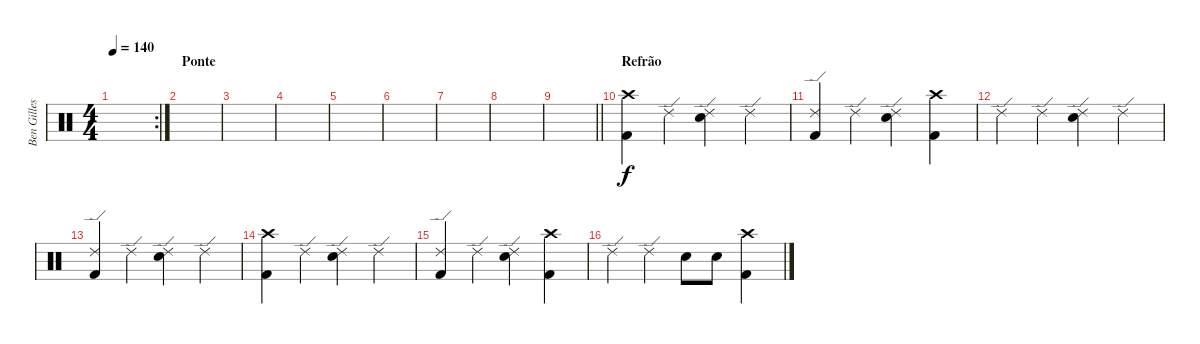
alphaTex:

\track ("Ben Gilles" "Ben Gilles") {instrument percussion}
\staff {score}
\articulation defaults
\rc 2
\ts (4 4)
\tempo 140
\clef neutral
\ks c
|
\section ("" "Ponte")
|
|
|
|
|
|
|
\barLineRight lightlight
|
\section ("" "Refrão")
("Crash high (hit)" "Kick (hit) 2").4 "Ride (edge) 2".4 ("Ride (edge) 2" "Electric Snare (hit)").4 "Ride (edge) 2".4 |
("Ride (edge) 2" "Kick (hit) 2").4 "Ride (edge) 2".4 ("Ride (edge) 2" "Electric Snare (hit)").4 ("Crash high (hit)" "Kick (hit) 2").4 |
"Ride (edge) 2".4 "Ride (edge) 2".4 ("Ride (edge) 2" "Electric Snare (hit)").4 "Ride (edge) 2".4 |
("Ride (edge) 2" "Kick (hit) 2").4 "Ride (edge) 2".4 ("Ride (edge) 2" "Electric Snare (hit)").4 "Ride (edge) 2".4 |
("Crash high (hit)" "Kick (hit) 2").4 "Ride (edge) 2".4 ("Ride (edge) 2" "Electric Snare (hit)").4 "Ride (edge) 2".4 |
("Ride (edge) 2" "Kick (hit) 2").4 "Ride (edge) 2".4 ("Ride (edge) 2" "Electric Snare (hit)").4 ("Crash high (hit)" "Kick (hit) 2").4 |
"Ride (edge) 2".4 "Ride (edge) 2".4 "Electric Snare (hit)".8 "Electric Snare (hit)".8 ("Crash high (hit)" "Kick (hit) 2").4
